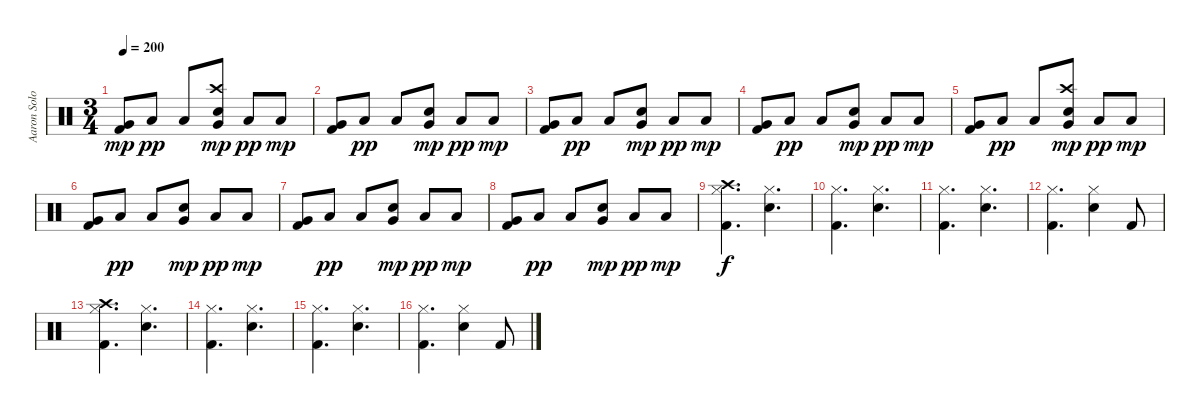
\track ("Aaron Solowoniuk" "Aaron Solo") {instrument percussion}
\staff {score}
\articulation defaults
\ts (3 4)
\tempo 200
\clef neutral
\ks c
("Very Low Tom (hit)" "Kick (hit) 2").8{dy mp} "Low Floor Tom (hit)".8{dy pp} "Low Floor Tom (hit)".8 ("Crash high (hit)" "Very Low Tom (hit)" "Snare (hit) 2").8{dy mp} "Low Floor Tom (hit)".8{dy pp} "Low Floor Tom (hit)".8{dy mp} |
("Very Low Tom (hit)" "Kick (hit) 2").8 "Low Floor Tom (hit)".8{dy pp} "Low Floor Tom (hit)".8 ("Very Low Tom (hit)" "Snare (hit) 2").8{dy mp} "Low Floor Tom (hit)".8{dy pp} "Low Floor Tom (hit)".8{dy mp} |
("Very Low Tom (hit)" "Kick (hit) 2").8 "Low Floor Tom (hit)".8{dy pp} "Low Floor Tom (hit)".8 ("Very Low Tom (hit)" "Snare (hit) 2").8{dy mp} "Low Floor Tom (hit)".8{dy pp} "Low Floor Tom (hit)".8{dy mp} |
("Very Low Tom (hit)" "Kick (hit) 2").8 "Low Floor Tom (hit)".8{dy pp} "Low Floor Tom (hit)".8 ("Very Low Tom (hit)" "Snare (hit) 2").8{dy mp} "Low Floor Tom (hit)".8{dy pp} "Low Floor Tom (hit)".8{dy mp} |
("Very Low Tom (hit)" "Kick (hit) 2").8 "Low Floor Tom (hit)".8{dy pp} "Low Floor Tom (hit)".8 ("Crash high (hit)" "Very Low Tom (hit)" "Snare (hit) 2").8{dy mp} "Low Floor Tom (hit)".8{dy pp} "Low Floor Tom (hit)".8{dy mp} |
("Very Low Tom (hit)" "Kick (hit) 2").8 "Low Floor Tom (hit)".8{dy pp} "Low Floor Tom (hit)".8 ("Very Low Tom (hit)" "Snare (hit) 2").8{dy mp} "Low Floor Tom (hit)".8{dy pp} "Low Floor Tom (hit)".8{dy mp} |
("Very Low Tom (hit)" "Kick (hit) 2").8 "Low Floor Tom (hit)".8{dy pp} "Low Floor Tom (hit)".8 ("Very Low Tom (hit)" "Snare (hit) 2").8{dy mp} "Low Floor Tom (hit)".8{dy pp} "Low Floor Tom (hit)".8{dy mp} |
("Very Low Tom (hit)" "Kick (hit) 2").8 "Low Floor Tom (hit)".8{dy pp} "Low Floor Tom (hit)".8 ("Very Low Tom (hit)" "Snare (hit) 2").8{dy mp} "Low Floor Tom (hit)".8{dy pp} "Low Floor Tom (hit)".8{dy mp} |
("Crash high (hit)" "Hi-Hat (closed)" "Kick (hit) 2").4{d dy f} ("Hi-Hat (closed)" "Snare (hit) 2").4{d} |
("Hi-Hat (closed)" "Kick (hit) 2").4{d} ("Hi-Hat (closed)" "Snare (hit) 2").4{d} |
("Hi-Hat (closed)" "Kick (hit) 2").4{d} ("Hi-Hat (closed)" "Snare (hit) 2").4{d} |
("Hi-Hat (closed)" "Kick (hit) 2").4{d} ("Hi-Hat (closed)" "Snare (hit) 2").4 "Kick (hit) 2".8 |
("Crash high (hit)" "Hi-Hat (closed)" "Kick (hit) 2").4{d} ("Hi-Hat (closed)" "Snare (hit) 2").4{d} |
("Hi-Hat (closed)" "Kick (hit) 2").4{d} ("Hi-Hat (closed)" "Snare (hit) 2").4{d} |
("Hi-Hat (closed)" "Kick (hit) 2").4{d} ("Hi-Hat (closed)" "Snare (hit) 2").4{d} |
("Hi-Hat (closed)" "Kick (hit) 2").4{d} ("Hi-Hat (closed)" "Snare (hit) 2").4 "Kick (hit) 2".8
